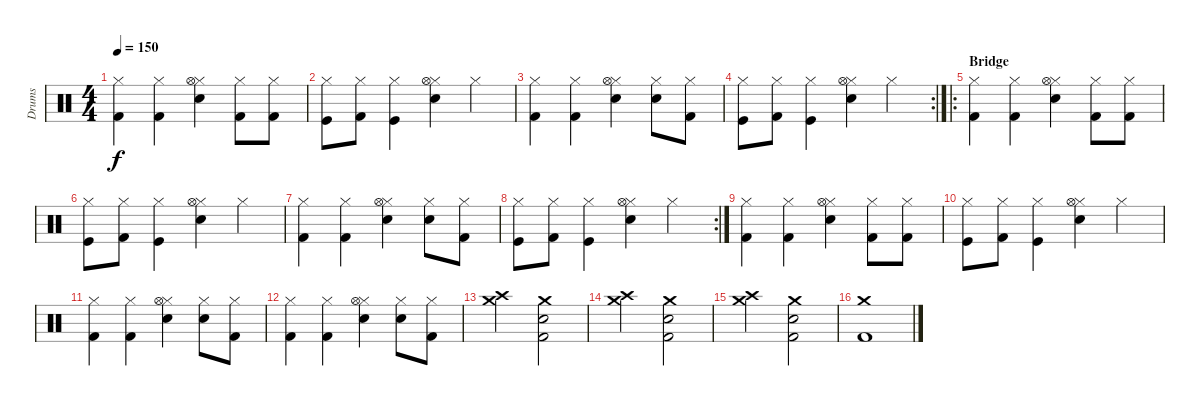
\track ("Drums" "Drums") {instrument percussion}
\staff {score}
\articulation defaults
\ts (4 4)
\tempo 150
\clef neutral
\ks c
("Kick (hit) 2" "Hi-Hat (closed)").4{dy f} ("Kick (hit) 2" "Hi-Hat (closed)").4 ("Snare (hit) 2" "Hi-Hat (closed)" "Hi-Hat (open)").4 ("Kick (hit) 2" "Hi-Hat (closed)").8 ("Kick (hit) 2" "Hi-Hat (closed)").8 |
("Kick (hit)" "Hi-Hat (closed)").8 ("Kick (hit) 2" "Hi-Hat (closed)").8 ("Kick (hit)" "Hi-Hat (closed)").4 ("Snare (hit) 2" "Hi-Hat (closed)" "Hi-Hat (open)").4 "Hi-Hat (closed)".4 |
("Kick (hit) 2" "Hi-Hat (closed)").4 ("Kick (hit) 2" "Hi-Hat (closed)").4 ("Snare (hit) 2" "Hi-Hat (closed)" "Hi-Hat (open)").4 ("Snare (hit) 2" "Hi-Hat (closed)").8 ("Kick (hit) 2" "Hi-Hat (closed)").8 |
\rc 2
("Kick (hit)" "Hi-Hat (closed)").8 ("Kick (hit) 2" "Hi-Hat (closed)").8 ("Kick (hit)" "Hi-Hat (closed)").4 ("Snare (hit) 2" "Hi-Hat (closed)" "Hi-Hat (open)").4 "Hi-Hat (closed)".4 |
\ro
\section ("" "Bridge")
("Kick (hit) 2" "Hi-Hat (closed)").4 ("Kick (hit) 2" "Hi-Hat (closed)").4 ("Snare (hit) 2" "Hi-Hat (closed)" "Hi-Hat (open)").4 ("Kick (hit) 2" "Hi-Hat (closed)").8 ("Kick (hit) 2" "Hi-Hat (closed)").8 |
("Kick (hit)" "Hi-Hat (closed)").8 ("Kick (hit) 2" "Hi-Hat (closed)").8 ("Kick (hit)" "Hi-Hat (closed)").4 ("Snare (hit) 2" "Hi-Hat (closed)" "Hi-Hat (open)").4 "Hi-Hat (closed)".4 |
("Kick (hit) 2" "Hi-Hat (closed)").4 ("Kick (hit) 2" "Hi-Hat (closed)").4 ("Snare (hit) 2" "Hi-Hat (closed)" "Hi-Hat (open)").4 ("Snare (hit) 2" "Hi-Hat (closed)").8 ("Kick (hit) 2" "Hi-Hat (closed)").8 |
\rc 2
("Kick (hit)" "Hi-Hat (closed)").8 ("Kick (hit) 2" "Hi-Hat (closed)").8 ("Kick (hit)" "Hi-Hat (closed)").4 ("Snare (hit) 2" "Hi-Hat (closed)" "Hi-Hat (open)").4 "Hi-Hat (closed)".4 |
("Kick (hit) 2" "Hi-Hat (closed)").4 ("Kick (hit) 2" "Hi-Hat (closed)").4 ("Snare (hit) 2" "Hi-Hat (closed)" "Hi-Hat (open)").4 ("Kick (hit) 2" "Hi-Hat (closed)").8 ("Kick (hit) 2" "Hi-Hat (closed)").8 |
("Kick (hit)" "Hi-Hat (closed)").8 ("Kick (hit) 2" "Hi-Hat (closed)").8 ("Kick (hit)" "Hi-Hat (closed)").4 ("Snare (hit) 2" "Hi-Hat (closed)" "Hi-Hat (open)").4 "Hi-Hat (closed)".4 |
("Kick (hit) 2" "Hi-Hat (closed)").4 ("Kick (hit) 2" "Hi-Hat (closed)").4 ("Snare (hit) 2" "Hi-Hat (closed)" "Hi-Hat (open)").4 ("Snare (hit) 2" "Hi-Hat (closed)").8 ("Kick (hit) 2" "Hi-Hat (closed)").8 |
("Kick (hit) 2" "Hi-Hat (closed)").4 ("Kick (hit) 2" "Hi-Hat (closed)").4 ("Snare (hit) 2" "Hi-Hat (closed)" "Hi-Hat (open)").4 ("Snare (hit) 2" "Hi-Hat (closed)").8 ("Kick (hit) 2" "Hi-Hat (closed)").8 |
("Crash medium (hit)" "Crash high (hit)").2 ("Crash medium (hit)" "Kick (hit) 2" "Snare (hit) 2").2 |
("Crash medium (hit)" "Crash high (hit)").2 ("Crash medium (hit)" "Kick (hit) 2" "Snare (hit) 2").2 |
("Crash medium (hit)" "Crash high (hit)").2 ("Crash medium (hit)" "Kick (hit) 2" "Snare (hit) 2").2 |
("Crash medium (hit)" "Kick (hit) 2").1
